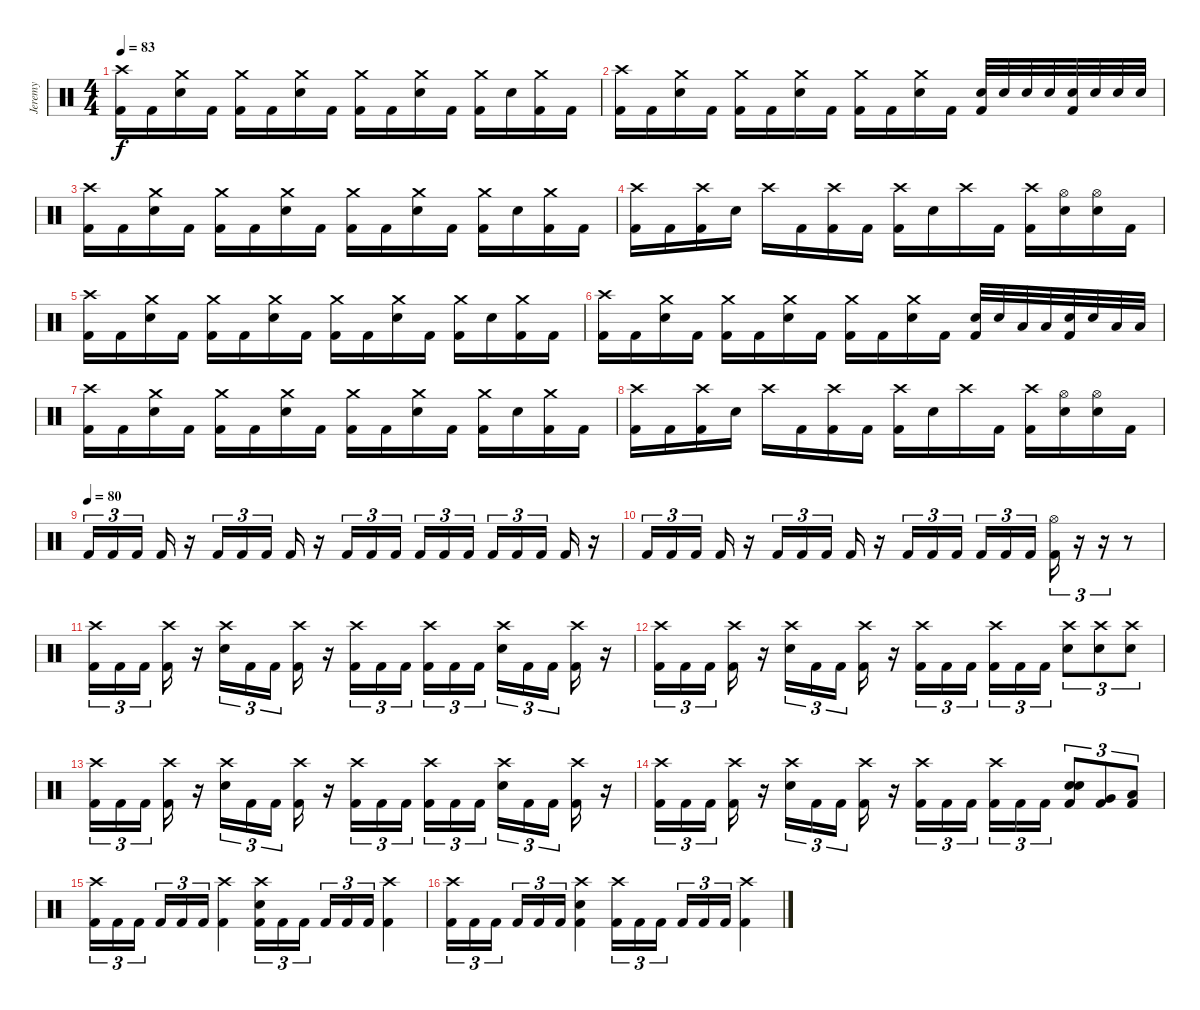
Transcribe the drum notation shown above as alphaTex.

\track ("Jeremy" "Jeremy") {instrument percussion}
\staff {score}
\articulation defaults
\ts (4 4)
\tempo 83
\clef neutral
\ks c
("Crash high (hit)" "Kick (hit) 2").16{dy f} "Kick (hit) 2".16 ("Crash medium (hit)" "Electric Snare (hit)").16 "Kick (hit) 2".16 ("Crash medium (hit)" "Kick (hit) 2").16 "Kick (hit) 2".16 ("Crash medium (hit)" "Electric Snare (hit)").16 "Kick (hit) 2".16 ("Crash medium (hit)" "Kick (hit) 2").16 "Kick (hit) 2".16 ("Crash medium (hit)" "Electric Snare (hit)").16 "Kick (hit) 2".16 ("Crash medium (hit)" "Kick (hit) 2").16 "Electric Snare (hit)".16 ("Crash medium (hit)" "Kick (hit) 2").16 "Kick (hit) 2".16 |
("Crash high (hit)" "Kick (hit) 2").16 "Kick (hit) 2".16 ("Crash medium (hit)" "Electric Snare (hit)").16 "Kick (hit) 2".16 ("Crash medium (hit)" "Kick (hit) 2").16 "Kick (hit) 2".16 ("Crash medium (hit)" "Electric Snare (hit)").16 "Kick (hit) 2".16 ("Crash medium (hit)" "Kick (hit) 2").16 "Kick (hit) 2".16 ("Crash medium (hit)" "Electric Snare (hit)").16 "Kick (hit) 2".16 ("Electric Snare (hit)" "Kick (hit) 2").32 "Electric Snare (hit)".32 "Electric Snare (hit)".32 "Electric Snare (hit)".32 ("Electric Snare (hit)" "Kick (hit) 2").32 "Electric Snare (hit)".32 "Electric Snare (hit)".32 "Electric Snare (hit)".32 |
("Crash high (hit)" "Kick (hit) 2").16 "Kick (hit) 2".16 ("Crash medium (hit)" "Electric Snare (hit)").16 "Kick (hit) 2".16 ("Crash medium (hit)" "Kick (hit) 2").16 "Kick (hit) 2".16 ("Crash medium (hit)" "Electric Snare (hit)").16 "Kick (hit) 2".16 ("Crash medium (hit)" "Kick (hit) 2").16 "Kick (hit) 2".16 ("Crash medium (hit)" "Electric Snare (hit)").16 "Kick (hit) 2".16 ("Crash medium (hit)" "Kick (hit) 2").16 "Electric Snare (hit)".16 ("Crash medium (hit)" "Kick (hit) 2").16 "Kick (hit) 2".16 |
("Crash high (hit)" "Kick (hit) 2").16 "Kick (hit) 2".16 ("Crash high (hit)" "Kick (hit) 2").16 "Electric Snare (hit)".16 "Crash high (hit)".16 "Kick (hit) 2".16 ("Crash high (hit)" "Kick (hit) 2").16 "Kick (hit) 2".16 ("Crash high (hit)" "Kick (hit) 2").16 "Electric Snare (hit)".16 "Crash high (hit)".16 "Kick (hit) 2".16 ("Crash high (hit)" "Kick (hit) 2").16 ("Hi-Hat (open)" "Electric Snare (hit)").16 ("Hi-Hat (open)" "Electric Snare (hit)").16 "Kick (hit) 2".16 |
("Crash high (hit)" "Kick (hit) 2").16 "Kick (hit) 2".16 ("Crash medium (hit)" "Electric Snare (hit)").16 "Kick (hit) 2".16 ("Crash medium (hit)" "Kick (hit) 2").16 "Kick (hit) 2".16 ("Crash medium (hit)" "Electric Snare (hit)").16 "Kick (hit) 2".16 ("Crash medium (hit)" "Kick (hit) 2").16 "Kick (hit) 2".16 ("Crash medium (hit)" "Electric Snare (hit)").16 "Kick (hit) 2".16 ("Crash medium (hit)" "Kick (hit) 2").16 "Electric Snare (hit)".16 ("Crash medium (hit)" "Kick (hit) 2").16 "Kick (hit) 2".16 |
("Crash high (hit)" "Kick (hit) 2").16 "Kick (hit) 2".16 ("Crash medium (hit)" "Electric Snare (hit)").16 "Kick (hit) 2".16 ("Crash medium (hit)" "Kick (hit) 2").16 "Kick (hit) 2".16 ("Crash medium (hit)" "Electric Snare (hit)").16 "Kick (hit) 2".16 ("Crash medium (hit)" "Kick (hit) 2").16 "Kick (hit) 2".16 ("Crash medium (hit)" "Electric Snare (hit)").16 "Kick (hit) 2".16 ("Electric Snare (hit)" "Kick (hit) 2").32 "Electric Snare (hit)".32 "Low Tom (hit)".32 "Low Tom (hit)".32 ("Electric Snare (hit)" "Kick (hit) 2").32 "Electric Snare (hit)".32 "Low Tom (hit)".32 "Low Tom (hit)".32 |
("Crash high (hit)" "Kick (hit) 2").16 "Kick (hit) 2".16 ("Crash medium (hit)" "Electric Snare (hit)").16 "Kick (hit) 2".16 ("Crash medium (hit)" "Kick (hit) 2").16 "Kick (hit) 2".16 ("Crash medium (hit)" "Electric Snare (hit)").16 "Kick (hit) 2".16 ("Crash medium (hit)" "Kick (hit) 2").16 "Kick (hit) 2".16 ("Crash medium (hit)" "Electric Snare (hit)").16 "Kick (hit) 2".16 ("Crash medium (hit)" "Kick (hit) 2").16 "Electric Snare (hit)".16 ("Crash medium (hit)" "Kick (hit) 2").16 "Kick (hit) 2".16 |
("Crash high (hit)" "Kick (hit) 2").16 "Kick (hit) 2".16 ("Crash high (hit)" "Kick (hit) 2").16 "Electric Snare (hit)".16 "Crash high (hit)".16 "Kick (hit) 2".16 ("Crash high (hit)" "Kick (hit) 2").16 "Kick (hit) 2".16 ("Crash high (hit)" "Kick (hit) 2").16 "Electric Snare (hit)".16 "Crash high (hit)".16 "Kick (hit) 2".16 ("Crash high (hit)" "Kick (hit) 2").16 ("Hi-Hat (open)" "Electric Snare (hit)").16 ("Hi-Hat (open)" "Electric Snare (hit)").16 "Kick (hit) 2".16 |
\tempo (80)
"Kick (hit) 2".16{tu (3 2)} "Kick (hit) 2".16{tu (3 2)} "Kick (hit) 2".16{tu (3 2) beam splitsecondary} "Kick (hit) 2".16 r.16 "Kick (hit) 2".16{tu (3 2)} "Kick (hit) 2".16{tu (3 2)} "Kick (hit) 2".16{tu (3 2) beam splitsecondary} "Kick (hit) 2".16 r.16 "Kick (hit) 2".16{tu (3 2)} "Kick (hit) 2".16{tu (3 2)} "Kick (hit) 2".16{tu (3 2) beam splitsecondary} "Kick (hit) 2".16{tu (3 2)} "Kick (hit) 2".16{tu (3 2)} "Kick (hit) 2".16{tu (3 2)} "Kick (hit) 2".16{tu (3 2)} "Kick (hit) 2".16{tu (3 2)} "Kick (hit) 2".16{tu (3 2) beam splitsecondary} "Kick (hit) 2".16 r.16 |
"Kick (hit) 2".16{tu (3 2)} "Kick (hit) 2".16{tu (3 2)} "Kick (hit) 2".16{tu (3 2) beam splitsecondary} "Kick (hit) 2".16 r.16 "Kick (hit) 2".16{tu (3 2)} "Kick (hit) 2".16{tu (3 2)} "Kick (hit) 2".16{tu (3 2) beam splitsecondary} "Kick (hit) 2".16 r.16 "Kick (hit) 2".16{tu (3 2)} "Kick (hit) 2".16{tu (3 2)} "Kick (hit) 2".16{tu (3 2) beam splitsecondary} "Kick (hit) 2".16{tu (3 2)} "Kick (hit) 2".16{tu (3 2)} "Kick (hit) 2".16{tu (3 2)} ("Hi-Hat (open)" "Kick (hit) 2").16{tu (3 2)} r.16{tu (3 2)} r.16{tu (3 2)} r.8 |
("Crash high (hit)" "Kick (hit) 2").16{tu (3 2)} "Kick (hit) 2".16{tu (3 2)} "Kick (hit) 2".16{tu (3 2) beam splitsecondary} ("Crash high (hit)" "Kick (hit) 2").16 r.16 ("Crash high (hit)" "Electric Snare (hit)").16{tu (3 2)} "Kick (hit) 2".16{tu (3 2)} "Kick (hit) 2".16{tu (3 2) beam splitsecondary} ("Crash high (hit)" "Kick (hit) 2").16 r.16 ("Crash high (hit)" "Kick (hit) 2").16{tu (3 2)} "Kick (hit) 2".16{tu (3 2)} "Kick (hit) 2".16{tu (3 2) beam splitsecondary} ("Crash high (hit)" "Kick (hit) 2").16{tu (3 2)} "Kick (hit) 2".16{tu (3 2)} "Kick (hit) 2".16{tu (3 2)} ("Crash high (hit)" "Electric Snare (hit)").16{tu (3 2)} "Kick (hit) 2".16{tu (3 2)} "Kick (hit) 2".16{tu (3 2) beam splitsecondary} ("Crash high (hit)" "Kick (hit) 2").16 r.16 |
("Crash high (hit)" "Kick (hit) 2").16{tu (3 2)} "Kick (hit) 2".16{tu (3 2)} "Kick (hit) 2".16{tu (3 2) beam splitsecondary} ("Crash high (hit)" "Kick (hit) 2").16 r.16 ("Crash high (hit)" "Electric Snare (hit)").16{tu (3 2)} "Kick (hit) 2".16{tu (3 2)} "Kick (hit) 2".16{tu (3 2) beam splitsecondary} ("Crash high (hit)" "Kick (hit) 2").16 r.16 ("Crash high (hit)" "Kick (hit) 2").16{tu (3 2)} "Kick (hit) 2".16{tu (3 2)} "Kick (hit) 2".16{tu (3 2) beam splitsecondary} ("Crash high (hit)" "Kick (hit) 2").16{tu (3 2)} "Kick (hit) 2".16{tu (3 2)} "Kick (hit) 2".16{tu (3 2)} ("Crash high (hit)" "Electric Snare (hit)").8{tu (3 2)} ("Crash high (hit)" "Electric Snare (hit)").8{tu (3 2)} ("Crash high (hit)" "Electric Snare (hit)").8{tu (3 2)} |
("Crash high (hit)" "Kick (hit) 2").16{tu (3 2)} "Kick (hit) 2".16{tu (3 2)} "Kick (hit) 2".16{tu (3 2) beam splitsecondary} ("Crash high (hit)" "Kick (hit) 2").16 r.16 ("Crash high (hit)" "Electric Snare (hit)").16{tu (3 2)} "Kick (hit) 2".16{tu (3 2)} "Kick (hit) 2".16{tu (3 2) beam splitsecondary} ("Crash high (hit)" "Kick (hit) 2").16 r.16 ("Crash high (hit)" "Kick (hit) 2").16{tu (3 2)} "Kick (hit) 2".16{tu (3 2)} "Kick (hit) 2".16{tu (3 2) beam splitsecondary} ("Crash high (hit)" "Kick (hit) 2").16{tu (3 2)} "Kick (hit) 2".16{tu (3 2)} "Kick (hit) 2".16{tu (3 2)} ("Crash high (hit)" "Electric Snare (hit)").16{tu (3 2)} "Kick (hit) 2".16{tu (3 2)} "Kick (hit) 2".16{tu (3 2) beam splitsecondary} ("Crash high (hit)" "Kick (hit) 2").16 r.16 |
("Crash high (hit)" "Kick (hit) 2").16{tu (3 2)} "Kick (hit) 2".16{tu (3 2)} "Kick (hit) 2".16{tu (3 2) beam splitsecondary} ("Crash high (hit)" "Kick (hit) 2").16 r.16 ("Crash high (hit)" "Electric Snare (hit)").16{tu (3 2)} "Kick (hit) 2".16{tu (3 2)} "Kick (hit) 2".16{tu (3 2) beam splitsecondary} ("Crash high (hit)" "Kick (hit) 2").16 r.16 ("Crash high (hit)" "Kick (hit) 2").16{tu (3 2)} "Kick (hit) 2".16{tu (3 2)} "Kick (hit) 2".16{tu (3 2) beam splitsecondary} ("Crash high (hit)" "Kick (hit) 2").16{tu (3 2)} "Kick (hit) 2".16{tu (3 2)} "Kick (hit) 2".16{tu (3 2)} ("Electric Snare (hit)" "Electric Snare (hit)" "Kick (hit) 2").8{tu (3 2)} ("Very Low Tom (hit)" "Kick (hit) 2").8{tu (3 2)} ("Low Floor Tom (hit)" "Kick (hit) 2").8{tu (3 2)} |
("Crash high (hit)" "Kick (hit) 2").16{tu (3 2)} "Kick (hit) 2".16{tu (3 2)} "Kick (hit) 2".16{tu (3 2) beam splitsecondary} "Kick (hit) 2".16{tu (3 2)} "Kick (hit) 2".16{tu (3 2)} "Kick (hit) 2".16{tu (3 2)} ("Crash high (hit)" "Kick (hit) 2").4 ("Crash high (hit)" "Electric Snare (hit)" "Kick (hit) 2").16{tu (3 2)} "Kick (hit) 2".16{tu (3 2)} "Kick (hit) 2".16{tu (3 2) beam splitsecondary} "Kick (hit) 2".16{tu (3 2)} "Kick (hit) 2".16{tu (3 2)} "Kick (hit) 2".16{tu (3 2)} ("Crash high (hit)" "Kick (hit) 2").4 |
("Crash high (hit)" "Kick (hit) 2").16{tu (3 2)} "Kick (hit) 2".16{tu (3 2)} "Kick (hit) 2".16{tu (3 2) beam splitsecondary} "Kick (hit) 2".16{tu (3 2)} "Kick (hit) 2".16{tu (3 2)} "Kick (hit) 2".16{tu (3 2)} ("Crash high (hit)" "Electric Snare (hit)" "Kick (hit) 2").4 ("Crash high (hit)" "Kick (hit) 2").16{tu (3 2)} "Kick (hit) 2".16{tu (3 2)} "Kick (hit) 2".16{tu (3 2) beam splitsecondary} "Kick (hit) 2".16{tu (3 2)} "Kick (hit) 2".16{tu (3 2)} "Kick (hit) 2".16{tu (3 2)} ("Crash high (hit)" "Kick (hit) 2").4
